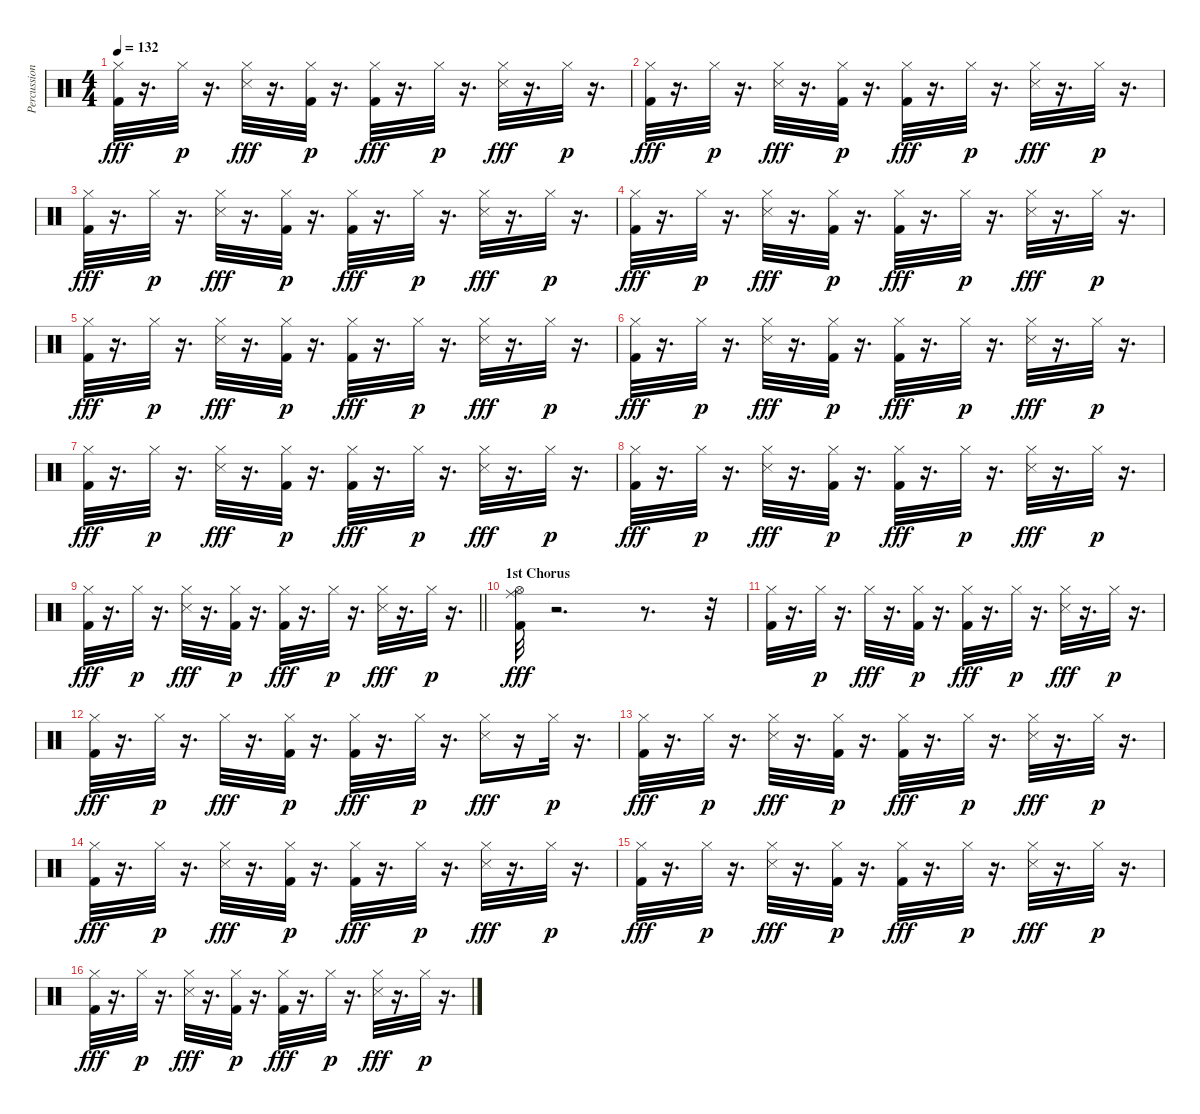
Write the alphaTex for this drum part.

\track ("Percussion" "Percussion") {instrument percussion}
\staff {score}
\articulation defaults
\ts (4 4)
\tempo 132
\clef neutral
\ks c
("Kick (hit) 2" "Hi-Hat (closed)").32{dy fff} r.16{d} "Hi-Hat (closed)".32{dy p} r.16{d} ("Snare (side stick) 3" "Hi-Hat (closed)").32{dy fff} r.16{d} ("Kick (hit) 2" "Hi-Hat (closed)").32{dy p} r.16{d} ("Kick (hit) 2" "Hi-Hat (closed)").32{dy fff} r.16{d} "Hi-Hat (closed)".32{dy p} r.16{d} ("Hi-Hat (closed)" "Snare (side stick) 3").32{dy fff} r.16{d} "Hi-Hat (closed)".32{dy p} r.16{d} |
("Kick (hit) 2" "Hi-Hat (closed)").32{dy fff} r.16{d} "Hi-Hat (closed)".32{dy p} r.16{d} ("Snare (side stick) 3" "Hi-Hat (closed)").32{dy fff} r.16{d} ("Kick (hit) 2" "Hi-Hat (closed)").32{dy p} r.16{d} ("Kick (hit) 2" "Hi-Hat (closed)").32{dy fff} r.16{d} "Hi-Hat (closed)".32{dy p} r.16{d} ("Hi-Hat (closed)" "Snare (side stick) 3").32{dy fff} r.16{d} "Hi-Hat (closed)".32{dy p} r.16{d} |
("Kick (hit) 2" "Hi-Hat (closed)").32{dy fff} r.16{d} "Hi-Hat (closed)".32{dy p} r.16{d} ("Snare (side stick) 3" "Hi-Hat (closed)").32{dy fff} r.16{d} ("Kick (hit) 2" "Hi-Hat (closed)").32{dy p} r.16{d} ("Kick (hit) 2" "Hi-Hat (closed)").32{dy fff} r.16{d} "Hi-Hat (closed)".32{dy p} r.16{d} ("Snare (side stick) 3" "Hi-Hat (closed)").32{dy fff} r.16{d} "Hi-Hat (closed)".32{dy p} r.16{d} |
("Kick (hit) 2" "Hi-Hat (closed)").32{dy fff} r.16{d} "Hi-Hat (closed)".32{dy p} r.16{d} ("Snare (side stick) 3" "Hi-Hat (closed)").32{dy fff} r.16{d} ("Kick (hit) 2" "Hi-Hat (closed)").32{dy p} r.16{d} ("Kick (hit) 2" "Hi-Hat (closed)").32{dy fff} r.16{d} "Hi-Hat (closed)".32{dy p} r.16{d} ("Hi-Hat (closed)" "Snare (side stick) 3").32{dy fff} r.16{d} "Hi-Hat (closed)".32{dy p} r.16{d} |
("Kick (hit) 2" "Hi-Hat (closed)").32{dy fff} r.16{d} "Hi-Hat (closed)".32{dy p} r.16{d} ("Hi-Hat (closed)" "Snare (side stick) 3").32{dy fff} r.16{d} ("Kick (hit) 2" "Hi-Hat (closed)").32{dy p} r.16{d} ("Kick (hit) 2" "Hi-Hat (closed)").32{dy fff} r.16{d} "Hi-Hat (closed)".32{dy p} r.16{d} ("Snare (side stick) 3" "Hi-Hat (closed)").32{dy fff} r.16{d} "Hi-Hat (closed)".32{dy p} r.16{d} |
("Kick (hit) 2" "Hi-Hat (closed)").32{dy fff} r.16{d} "Hi-Hat (closed)".32{dy p} r.16{d} ("Snare (side stick) 3" "Hi-Hat (closed)").32{dy fff} r.16{d} ("Kick (hit) 2" "Hi-Hat (closed)").32{dy p} r.16{d} ("Kick (hit) 2" "Hi-Hat (closed)").32{dy fff} r.16{d} "Hi-Hat (closed)".32{dy p} r.16{d} ("Hi-Hat (closed)" "Snare (side stick) 3").32{dy fff} r.16{d} "Hi-Hat (closed)".32{dy p} r.16{d} |
("Kick (hit) 2" "Hi-Hat (closed)").32{dy fff} r.16{d} "Hi-Hat (closed)".32{dy p} r.16{d} ("Hi-Hat (closed)" "Snare (side stick) 3").32{dy fff} r.16{d} ("Kick (hit) 2" "Hi-Hat (closed)").32{dy p} r.16{d} ("Kick (hit) 2" "Hi-Hat (closed)").32{dy fff} r.16{d} "Hi-Hat (closed)".32{dy p} r.16{d} ("Snare (side stick) 3" "Hi-Hat (closed)").32{dy fff} r.16{d} "Hi-Hat (closed)".32{dy p} r.16{d} |
("Kick (hit) 2" "Hi-Hat (closed)").32{dy fff} r.16{d} "Hi-Hat (closed)".32{dy p} r.16{d} ("Snare (side stick) 3" "Hi-Hat (closed)").32{dy fff} r.16{d} ("Kick (hit) 2" "Hi-Hat (closed)").32{dy p} r.16{d} ("Kick (hit) 2" "Hi-Hat (closed)").32{dy fff} r.16{d} "Hi-Hat (closed)".32{dy p} r.16{d} ("Hi-Hat (closed)" "Snare (side stick) 3").32{dy fff} r.16{d} "Hi-Hat (closed)".32{dy p} r.16{d} |
\barLineRight lightlight
("Kick (hit) 2" "Hi-Hat (closed)").32{dy fff} r.16{d} "Hi-Hat (closed)".32{dy p} r.16{d} ("Hi-Hat (closed)" "Snare (side stick) 3").32{dy fff} r.16{d} ("Kick (hit) 2" "Hi-Hat (closed)").32{dy p} r.16{d} ("Kick (hit) 2" "Hi-Hat (closed)").32{dy fff} r.16{d} "Hi-Hat (closed)".32{dy p} r.16{d} ("Snare (side stick) 3" "Hi-Hat (closed)").32{dy fff} r.16{d} "Hi-Hat (closed)".32{dy p} r.16{d} |
\section ("" "1st Chorus")
("Kick (hit) 2" "Hi-Hat (open)" "Ride (middle)").32{dy fff} r.2{d} r.8{d} r.32 |
("Kick (hit) 2" "Hi-Hat (closed)").32 r.16{d} "Hi-Hat (closed)".32{dy p} r.16{d} "Hi-Hat (closed)".32{dy fff} r.16{d} ("Kick (hit) 2" "Hi-Hat (closed)").32{dy p} r.16{d} ("Kick (hit) 2" "Hi-Hat (closed)").32{dy fff} r.16{d} "Hi-Hat (closed)".32{dy p} r.16{d} ("Snare (side stick) 3" "Hi-Hat (closed)").32{dy fff} r.16{d} "Hi-Hat (closed)".32{dy p} r.16{d} |
("Kick (hit) 2" "Hi-Hat (closed)").32{dy fff} r.16{d} "Hi-Hat (closed)".32{dy p} r.16{d} "Hi-Hat (closed)".32{dy fff} r.16{d} ("Kick (hit) 2" "Hi-Hat (closed)").32{dy p} r.16{d} ("Kick (hit) 2" "Hi-Hat (closed)").32{dy fff} r.16{d} "Hi-Hat (closed)".32{dy p} r.16{d} ("Snare (side stick) 3" "Hi-Hat (closed)").16{dy fff} r.16 "Hi-Hat (closed)".32{dy p} r.16{d} |
("Kick (hit) 2" "Hi-Hat (closed)").32{dy fff} r.16{d} "Hi-Hat (closed)".32{dy p} r.16{d} ("Hi-Hat (closed)" "Snare (side stick) 3").32{dy fff} r.16{d} ("Kick (hit) 2" "Hi-Hat (closed)").32{dy p} r.16{d} ("Kick (hit) 2" "Hi-Hat (closed)").32{dy fff} r.16{d} "Hi-Hat (closed)".32{dy p} r.16{d} ("Snare (side stick) 3" "Hi-Hat (closed)").32{dy fff} r.16{d} "Hi-Hat (closed)".32{dy p} r.16{d} |
("Kick (hit) 2" "Hi-Hat (closed)").32{dy fff} r.16{d} "Hi-Hat (closed)".32{dy p} r.16{d} ("Hi-Hat (closed)" "Snare (side stick) 3").32{dy fff} r.16{d} ("Kick (hit) 2" "Hi-Hat (closed)").32{dy p} r.16{d} ("Kick (hit) 2" "Hi-Hat (closed)").32{dy fff} r.16{d} "Hi-Hat (closed)".32{dy p} r.16{d} ("Snare (side stick) 3" "Hi-Hat (closed)").32{dy fff} r.16{d} "Hi-Hat (closed)".32{dy p} r.16{d} |
("Kick (hit) 2" "Hi-Hat (closed)").32{dy fff} r.16{d} "Hi-Hat (closed)".32{dy p} r.16{d} ("Snare (side stick) 3" "Hi-Hat (closed)").32{dy fff} r.16{d} ("Kick (hit) 2" "Hi-Hat (closed)").32{dy p} r.16{d} ("Kick (hit) 2" "Hi-Hat (closed)").32{dy fff} r.16{d} "Hi-Hat (closed)".32{dy p} r.16{d} ("Snare (side stick) 3" "Hi-Hat (closed)").32{dy fff} r.16{d} "Hi-Hat (closed)".32{dy p} r.16{d} |
("Kick (hit) 2" "Hi-Hat (closed)").32{dy fff} r.16{d} "Hi-Hat (closed)".32{dy p} r.16{d} ("Snare (side stick) 3" "Hi-Hat (closed)").32{dy fff} r.16{d} ("Kick (hit) 2" "Hi-Hat (closed)").32{dy p} r.16{d} ("Kick (hit) 2" "Hi-Hat (closed)").32{dy fff} r.16{d} "Hi-Hat (closed)".32{dy p} r.16{d} ("Hi-Hat (closed)" "Snare (side stick) 3").32{dy fff} r.16{d} "Hi-Hat (closed)".32{dy p} r.16{d}
